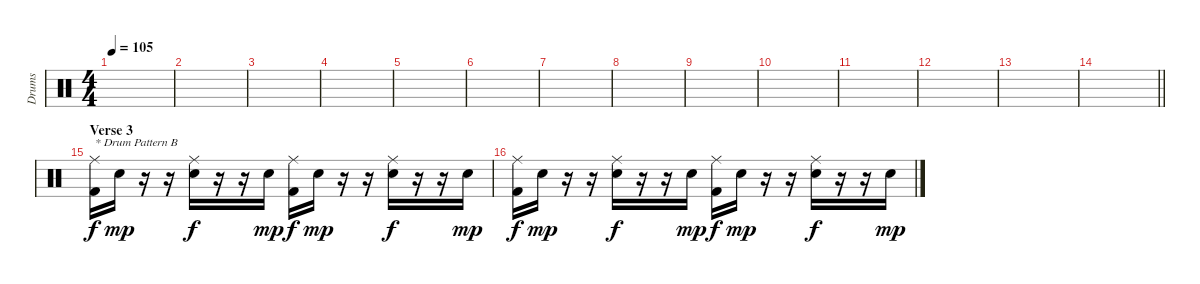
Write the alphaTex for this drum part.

\track ("Drums" "Drums") {instrument percussion}
\staff {score}
\articulation defaults
\ts (4 4)
\tempo 105
\clef neutral
\ks c
|
|
|
|
|
|
|
|
|
|
|
|
|
\barLineRight lightlight
|
\section ("" "Verse 3")
("Ride (middle)" "Kick (hit) 2").16{txt "* Drum Pattern B" dy f} "Electric Snare (hit)".16{dy mp} r.16 r.16 ("Ride (middle)" "Electric Snare (hit)").16{dy f} r.16 r.16 "Electric Snare (hit)".16{dy mp} ("Ride (middle)" "Kick (hit) 2").16{dy f} "Electric Snare (hit)".16{dy mp} r.16 r.16 ("Ride (middle)" "Electric Snare (hit)").16{dy f} r.16 r.16 "Electric Snare (hit)".16{dy mp} |
("Ride (middle)" "Kick (hit) 2").16{dy f} "Electric Snare (hit)".16{dy mp} r.16 r.16 ("Ride (middle)" "Electric Snare (hit)").16{dy f} r.16 r.16 "Electric Snare (hit)".16{dy mp} ("Ride (middle)" "Kick (hit) 2").16{dy f} "Electric Snare (hit)".16{dy mp} r.16 r.16 ("Ride (middle)" "Electric Snare (hit)").16{dy f} r.16 r.16 "Electric Snare (hit)".16{dy mp}
